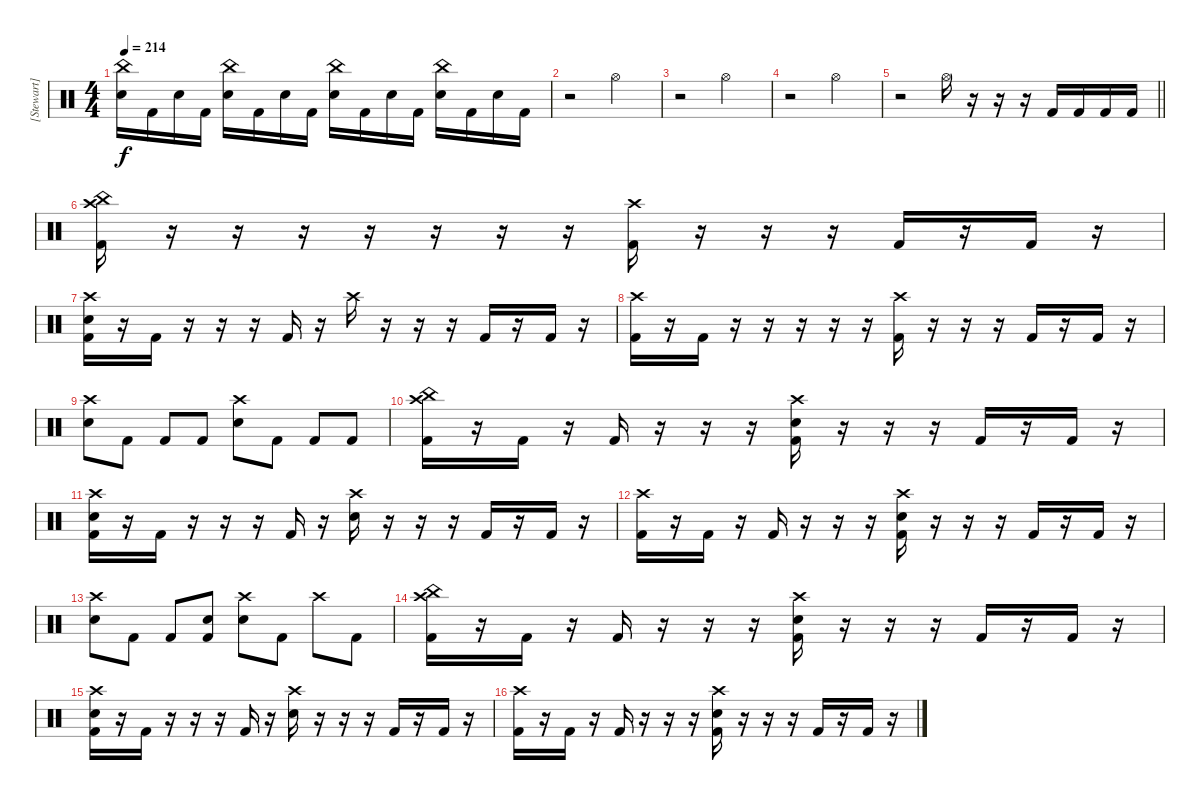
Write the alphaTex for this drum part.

\track ("[Stewart]" "[Stewart]") {instrument percussion}
\staff {score}
\articulation defaults
\ts (4 4)
\tempo 214
\clef neutral
\ks c
("China (hit)" "Electric Snare (hit)").16{dy f} "Kick (hit) 2".16 "Electric Snare (hit)".16 "Kick (hit) 2".16 ("China (hit)" "Electric Snare (hit)").16 "Kick (hit) 2".16 "Electric Snare (hit)".16 "Kick (hit) 2".16 ("China (hit)" "Electric Snare (hit)").16 "Kick (hit) 2".16 "Electric Snare (hit)".16 "Kick (hit) 2".16 ("China (hit)" "Electric Snare (hit)").16 "Kick (hit) 2".16 "Electric Snare (hit)".16 "Kick (hit) 2".16 |
r.2 "Hi-Hat (open)".2 |
r.2 "Hi-Hat (open)".2 |
r.2 "Hi-Hat (open)".2 |
\barLineRight lightlight
r.2 "Hi-Hat (open)".16 r.16 r.16 r.16 "Kick (hit) 2".16 "Kick (hit) 2".16 "Kick (hit) 2".16 "Kick (hit) 2".16 |
("China (hit)" "Crash high (hit)" "Kick (hit) 2").16 r.16 r.16 r.16 r.16 r.16 r.16 r.16 ("Crash high (hit)" "Kick (hit) 2").16 r.16 r.16 r.16 "Kick (hit) 2".16 r.16 "Kick (hit) 2".16 r.16 |
("Crash high (hit)" "Electric Snare (hit)" "Kick (hit) 2").16 r.16 "Kick (hit) 2".16 r.16 r.16 r.16 "Kick (hit) 2".16 r.16 "Crash high (hit)".16 r.16 r.16 r.16 "Kick (hit) 2".16 r.16 "Kick (hit) 2".16 r.16 |
("Crash high (hit)" "Kick (hit) 2").16 r.16 "Kick (hit) 2".16 r.16 r.16 r.16 r.16 r.16 ("Crash high (hit)" "Kick (hit) 2").16 r.16 r.16 r.16 "Kick (hit) 2".16 r.16 "Kick (hit) 2".16 r.16 |
("Crash high (hit)" "Electric Snare (hit)").8 "Kick (hit) 2".8 "Kick (hit) 2".8 "Kick (hit) 2".8 ("Crash high (hit)" "Electric Snare (hit)").8 "Kick (hit) 2".8 "Kick (hit) 2".8 "Kick (hit) 2".8 |
("China (hit)" "Crash high (hit)" "Kick (hit) 2").16 r.16 "Kick (hit) 2".16 r.16 "Kick (hit) 2".16 r.16 r.16 r.16 ("Crash high (hit)" "Electric Snare (hit)" "Kick (hit) 2").16 r.16 r.16 r.16 "Kick (hit) 2".16 r.16 "Kick (hit) 2".16 r.16 |
("Crash high (hit)" "Electric Snare (hit)" "Kick (hit) 2").16 r.16 "Kick (hit) 2".16 r.16 r.16 r.16 "Kick (hit) 2".16 r.16 ("Crash high (hit)" "Electric Snare (hit)").16 r.16 r.16 r.16 "Kick (hit) 2".16 r.16 "Kick (hit) 2".16 r.16 |
("Crash high (hit)" "Kick (hit) 2").16 r.16 "Kick (hit) 2".16 r.16 "Kick (hit) 2".16 r.16 r.16 r.16 ("Crash high (hit)" "Electric Snare (hit)" "Kick (hit) 2").16 r.16 r.16 r.16 "Kick (hit) 2".16 r.16 "Kick (hit) 2".16 r.16 |
("Crash high (hit)" "Electric Snare (hit)").8 "Kick (hit) 2".8 "Kick (hit) 2".8 ("Electric Snare (hit)" "Kick (hit) 2").8 ("Crash high (hit)" "Electric Snare (hit)").8 "Kick (hit) 2".8 "Crash high (hit)".8 "Kick (hit) 2".8 |
("China (hit)" "Crash high (hit)" "Kick (hit) 2").16 r.16 "Kick (hit) 2".16 r.16 "Kick (hit) 2".16 r.16 r.16 r.16 ("Crash high (hit)" "Electric Snare (hit)" "Kick (hit) 2").16 r.16 r.16 r.16 "Kick (hit) 2".16 r.16 "Kick (hit) 2".16 r.16 |
("Crash high (hit)" "Electric Snare (hit)" "Kick (hit) 2").16 r.16 "Kick (hit) 2".16 r.16 r.16 r.16 "Kick (hit) 2".16 r.16 ("Crash high (hit)" "Electric Snare (hit)").16 r.16 r.16 r.16 "Kick (hit) 2".16 r.16 "Kick (hit) 2".16 r.16 |
("Crash high (hit)" "Kick (hit) 2").16 r.16 "Kick (hit) 2".16 r.16 "Kick (hit) 2".16 r.16 r.16 r.16 ("Crash high (hit)" "Electric Snare (hit)" "Kick (hit) 2").16 r.16 r.16 r.16 "Kick (hit) 2".16 r.16 "Kick (hit) 2".16 r.16
